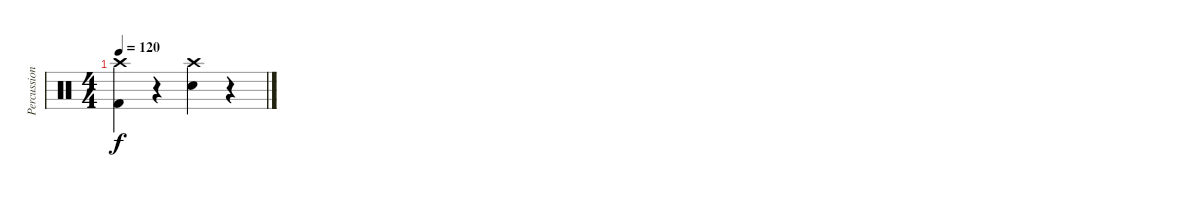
\track ("Percussion" "Percussion") {instrument percussion}
\staff {score}
\articulation defaults
\ts (4 4)
\tempo 120
\clef neutral
\ks c
("Crash high (hit)" "Kick (hit) 2").4{dy f} r.4 ("Crash high (hit)" "Electric Snare (hit)").4 r.4
